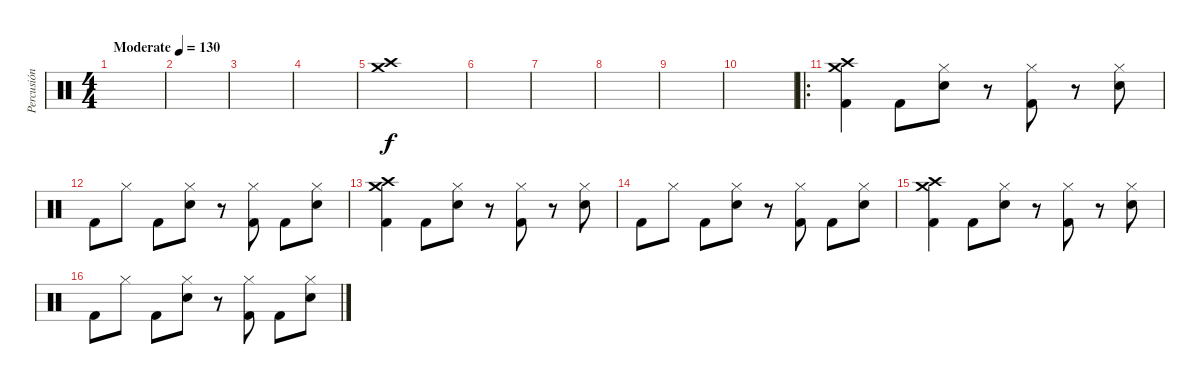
\track ("Percusión" "Percusión") {instrument percussion}
\staff {score}
\articulation defaults
\ts (4 4)
\tempo (130 "Moderate")
\clef neutral
\ks c
|
|
|
|
("Crash high (hit)" "Crash medium (hit)").1 |
|
|
|
|
|
\ro
("Crash high (hit)" "Crash medium (hit)" "Kick (hit) 2").4 "Kick (hit) 2".8 ("Snare (hit) 2" "Hi-Hat (closed)").8 r.8 ("Kick (hit) 2" "Hi-Hat (closed)").8 r.8 ("Snare (hit) 2" "Hi-Hat (closed)").8 |
"Kick (hit) 2".8 "Hi-Hat (closed)".8 "Kick (hit) 2".8 ("Snare (hit) 2" "Hi-Hat (closed)").8 r.8 ("Kick (hit) 2" "Hi-Hat (closed)").8 "Kick (hit) 2".8 ("Snare (hit) 2" "Hi-Hat (closed)").8 |
("Crash high (hit)" "Crash medium (hit)" "Kick (hit) 2").4 "Kick (hit) 2".8 ("Snare (hit) 2" "Hi-Hat (closed)").8 r.8 ("Kick (hit) 2" "Hi-Hat (closed)").8 r.8 ("Snare (hit) 2" "Hi-Hat (closed)").8 |
"Kick (hit) 2".8 "Hi-Hat (closed)".8 "Kick (hit) 2".8 ("Snare (hit) 2" "Hi-Hat (closed)").8 r.8 ("Kick (hit) 2" "Hi-Hat (closed)").8 "Kick (hit) 2".8 ("Snare (hit) 2" "Hi-Hat (closed)").8 |
("Crash high (hit)" "Crash medium (hit)" "Kick (hit) 2").4 "Kick (hit) 2".8 ("Snare (hit) 2" "Hi-Hat (closed)").8 r.8 ("Kick (hit) 2" "Hi-Hat (closed)").8 r.8 ("Snare (hit) 2" "Hi-Hat (closed)").8 |
"Kick (hit) 2".8 "Hi-Hat (closed)".8 "Kick (hit) 2".8 ("Snare (hit) 2" "Hi-Hat (closed)").8 r.8 ("Kick (hit) 2" "Hi-Hat (closed)").8 "Kick (hit) 2".8 ("Snare (hit) 2" "Hi-Hat (closed)").8
